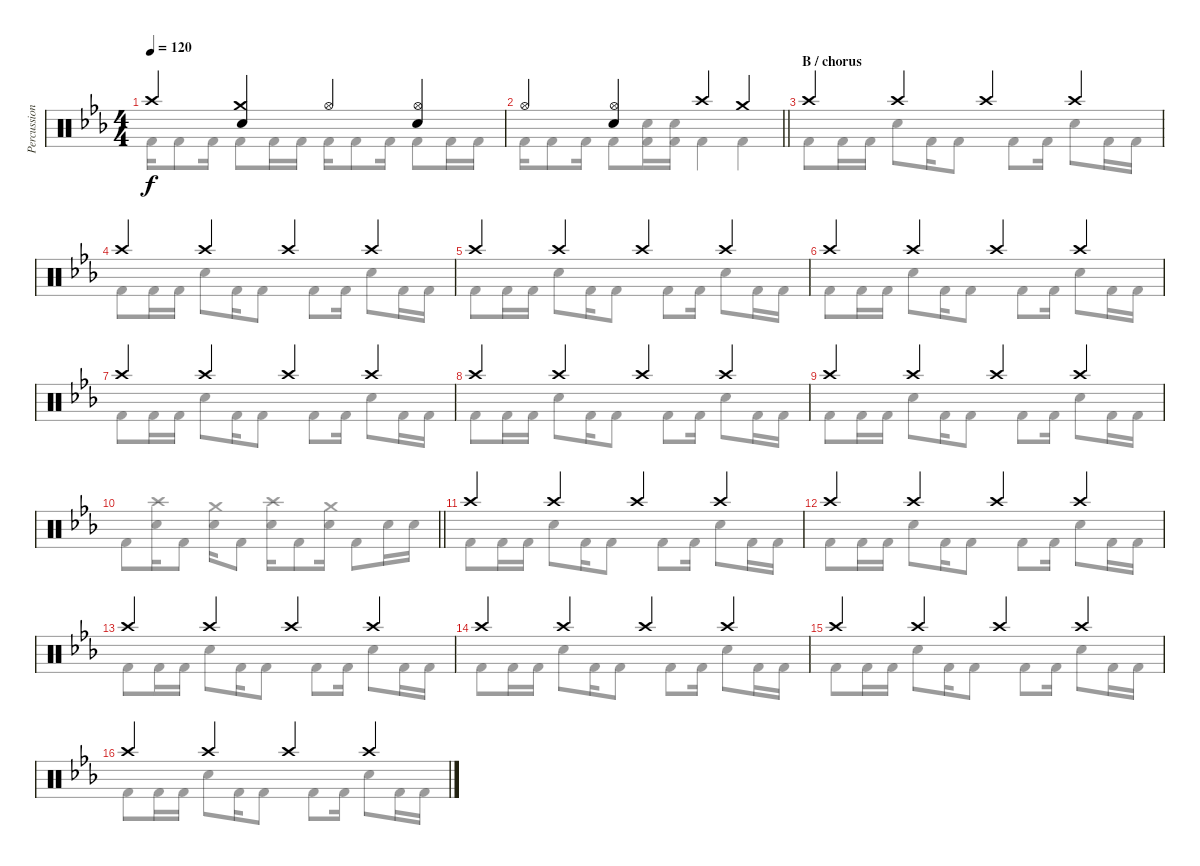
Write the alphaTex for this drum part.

\track ("Percussion" "Percussion") {instrument percussion}
\staff {score}
\articulation defaults
\voice
\ts (4 4)
\tempo 120
\clef neutral
\ks cminor "Crash high (hit)".4{dy f}
("Crash medium (hit)" "Snare (hit) 2").4 "Hi-Hat (open)".4 ("Hi-Hat (open)" "Snare (hit) 2").4 |
\barLineRight lightlight "Hi-Hat (open)".4
("Hi-Hat (open)" "Snare (hit) 2").4 "Crash high (hit)".4 "Crash medium (hit)".4 |
\section ("" "B / chorus")
"Crash high (hit)".4 "Crash high (hit)".4 "Crash high (hit)".4 "Crash high (hit)".4 |
"Crash high (hit)".4 "Crash high (hit)".4 "Crash high (hit)".4 "Crash high (hit)".4 |
"Crash high (hit)".4 "Crash high (hit)".4 "Crash high (hit)".4 "Crash high (hit)".4 |
"Crash high (hit)".4 "Crash high (hit)".4 "Crash high (hit)".4 "Crash high (hit)".4 |
"Crash high (hit)".4 "Crash high (hit)".4 "Crash high (hit)".4 "Crash high (hit)".4 |
"Crash high (hit)".4 "Crash high (hit)".4 "Crash high (hit)".4 "Crash high (hit)".4 |
"Crash high (hit)".4 "Crash high (hit)".4 "Crash high (hit)".4 "Crash high (hit)".4 |
\barLineRight lightlight
|
\section ("" "")
"Crash high (hit)".4 "Crash high (hit)".4 "Crash high (hit)".4 "Crash high (hit)".4 |
"Crash high (hit)".4 "Crash high (hit)".4 "Crash high (hit)".4 "Crash high (hit)".4 |
"Crash high (hit)".4 "Crash high (hit)".4 "Crash high (hit)".4 "Crash high (hit)".4 |
"Crash high (hit)".4 "Crash high (hit)".4 "Crash high (hit)".4 "Crash high (hit)".4 |
"Crash high (hit)".4 "Crash high (hit)".4 "Crash high (hit)".4 "Crash high (hit)".4 |
"Crash high (hit)".4 "Crash high (hit)".4 "Crash high (hit)".4 "Crash high (hit)".4
\voice
\clef neutral
\ottava regular
\simile none
\ks cminor "Kick (hit) 2".16{dy f} "Kick (hit) 2".8 "Kick (hit) 2".16 "Kick (hit) 2".8 "Kick (hit) 2".16 "Kick (hit) 2".16 "Kick (hit) 2".16 "Kick (hit) 2".8 "Kick (hit) 2".16 "Kick (hit) 2".8 "Kick (hit) 2".16 "Kick (hit) 2".16
|
\barLineRight lightlight "Kick (hit) 2".16 "Kick (hit) 2".8 "Kick (hit) 2".16 "Kick (hit) 2".8
("Snare (hit) 2" "Kick (hit) 2").16 ("Snare (hit) 2" "Kick (hit) 2").16 "Kick (hit) 2".4 "Kick (hit) 2".4 |
"Kick (hit) 2".8 "Kick (hit) 2".16 "Kick (hit) 2".16 "Snare (hit) 2".8 "Kick (hit) 2".16 "Kick (hit) 2".8 "Kick (hit) 2".8 "Kick (hit) 2".16 "Snare (hit) 2".8 "Kick (hit) 2".16 "Kick (hit) 2".16 |
"Kick (hit) 2".8 "Kick (hit) 2".16 "Kick (hit) 2".16 "Snare (hit) 2".8 "Kick (hit) 2".16 "Kick (hit) 2".8 "Kick (hit) 2".8 "Kick (hit) 2".16 "Snare (hit) 2".8 "Kick (hit) 2".16 "Kick (hit) 2".16 |
"Kick (hit) 2".8 "Kick (hit) 2".16 "Kick (hit) 2".16 "Snare (hit) 2".8 "Kick (hit) 2".16 "Kick (hit) 2".8 "Kick (hit) 2".8 "Kick (hit) 2".16 "Snare (hit) 2".8 "Kick (hit) 2".16 "Kick (hit) 2".16 |
"Kick (hit) 2".8 "Kick (hit) 2".16 "Kick (hit) 2".16 "Snare (hit) 2".8 "Kick (hit) 2".16 "Kick (hit) 2".8 "Kick (hit) 2".8 "Kick (hit) 2".16 "Snare (hit) 2".8 "Kick (hit) 2".16 "Kick (hit) 2".16 |
"Kick (hit) 2".8 "Kick (hit) 2".16 "Kick (hit) 2".16 "Snare (hit) 2".8 "Kick (hit) 2".16 "Kick (hit) 2".8 "Kick (hit) 2".8 "Kick (hit) 2".16 "Snare (hit) 2".8 "Kick (hit) 2".16 "Kick (hit) 2".16 |
"Kick (hit) 2".8 "Kick (hit) 2".16 "Kick (hit) 2".16 "Snare (hit) 2".8 "Kick (hit) 2".16 "Kick (hit) 2".8 "Kick (hit) 2".8 "Kick (hit) 2".16 "Snare (hit) 2".8 "Kick (hit) 2".16 "Kick (hit) 2".16 |
"Kick (hit) 2".8 "Kick (hit) 2".16 "Kick (hit) 2".16 "Snare (hit) 2".8 "Kick (hit) 2".16 "Kick (hit) 2".8 "Kick (hit) 2".8 "Kick (hit) 2".16 "Snare (hit) 2".8 "Kick (hit) 2".16 "Kick (hit) 2".16 |
\barLineRight lightlight "Kick (hit) 2".8
("Crash high (hit)" "Snare (hit) 2").16 "Kick (hit) 2".8 ("Crash medium (hit)" "Snare (hit) 2").16 "Kick (hit) 2".8 ("Crash high (hit)" "Snare (hit) 2").16 "Kick (hit) 2".8 ("Crash medium (hit)" "Snare (hit) 2").16 "Kick (hit) 2".8 "Snare (hit) 2".16 "Snare (hit) 2".16 |
"Kick (hit) 2".8 "Kick (hit) 2".16 "Kick (hit) 2".16 "Snare (hit) 2".8 "Kick (hit) 2".16 "Kick (hit) 2".8 "Kick (hit) 2".8 "Kick (hit) 2".16 "Snare (hit) 2".8 "Kick (hit) 2".16 "Kick (hit) 2".16 |
"Kick (hit) 2".8 "Kick (hit) 2".16 "Kick (hit) 2".16 "Snare (hit) 2".8 "Kick (hit) 2".16 "Kick (hit) 2".8 "Kick (hit) 2".8 "Kick (hit) 2".16 "Snare (hit) 2".8 "Kick (hit) 2".16 "Kick (hit) 2".16 |
"Kick (hit) 2".8 "Kick (hit) 2".16 "Kick (hit) 2".16 "Snare (hit) 2".8 "Kick (hit) 2".16 "Kick (hit) 2".8 "Kick (hit) 2".8 "Kick (hit) 2".16 "Snare (hit) 2".8 "Kick (hit) 2".16 "Kick (hit) 2".16 |
"Kick (hit) 2".8 "Kick (hit) 2".16 "Kick (hit) 2".16 "Snare (hit) 2".8 "Kick (hit) 2".16 "Kick (hit) 2".8 "Kick (hit) 2".8 "Kick (hit) 2".16 "Snare (hit) 2".8 "Kick (hit) 2".16 "Kick (hit) 2".16 |
"Kick (hit) 2".8 "Kick (hit) 2".16 "Kick (hit) 2".16 "Snare (hit) 2".8 "Kick (hit) 2".16 "Kick (hit) 2".8 "Kick (hit) 2".8 "Kick (hit) 2".16 "Snare (hit) 2".8 "Kick (hit) 2".16 "Kick (hit) 2".16 |
"Kick (hit) 2".8 "Kick (hit) 2".16 "Kick (hit) 2".16 "Snare (hit) 2".8 "Kick (hit) 2".16 "Kick (hit) 2".8 "Kick (hit) 2".8 "Kick (hit) 2".16 "Snare (hit) 2".8 "Kick (hit) 2".16 "Kick (hit) 2".16
